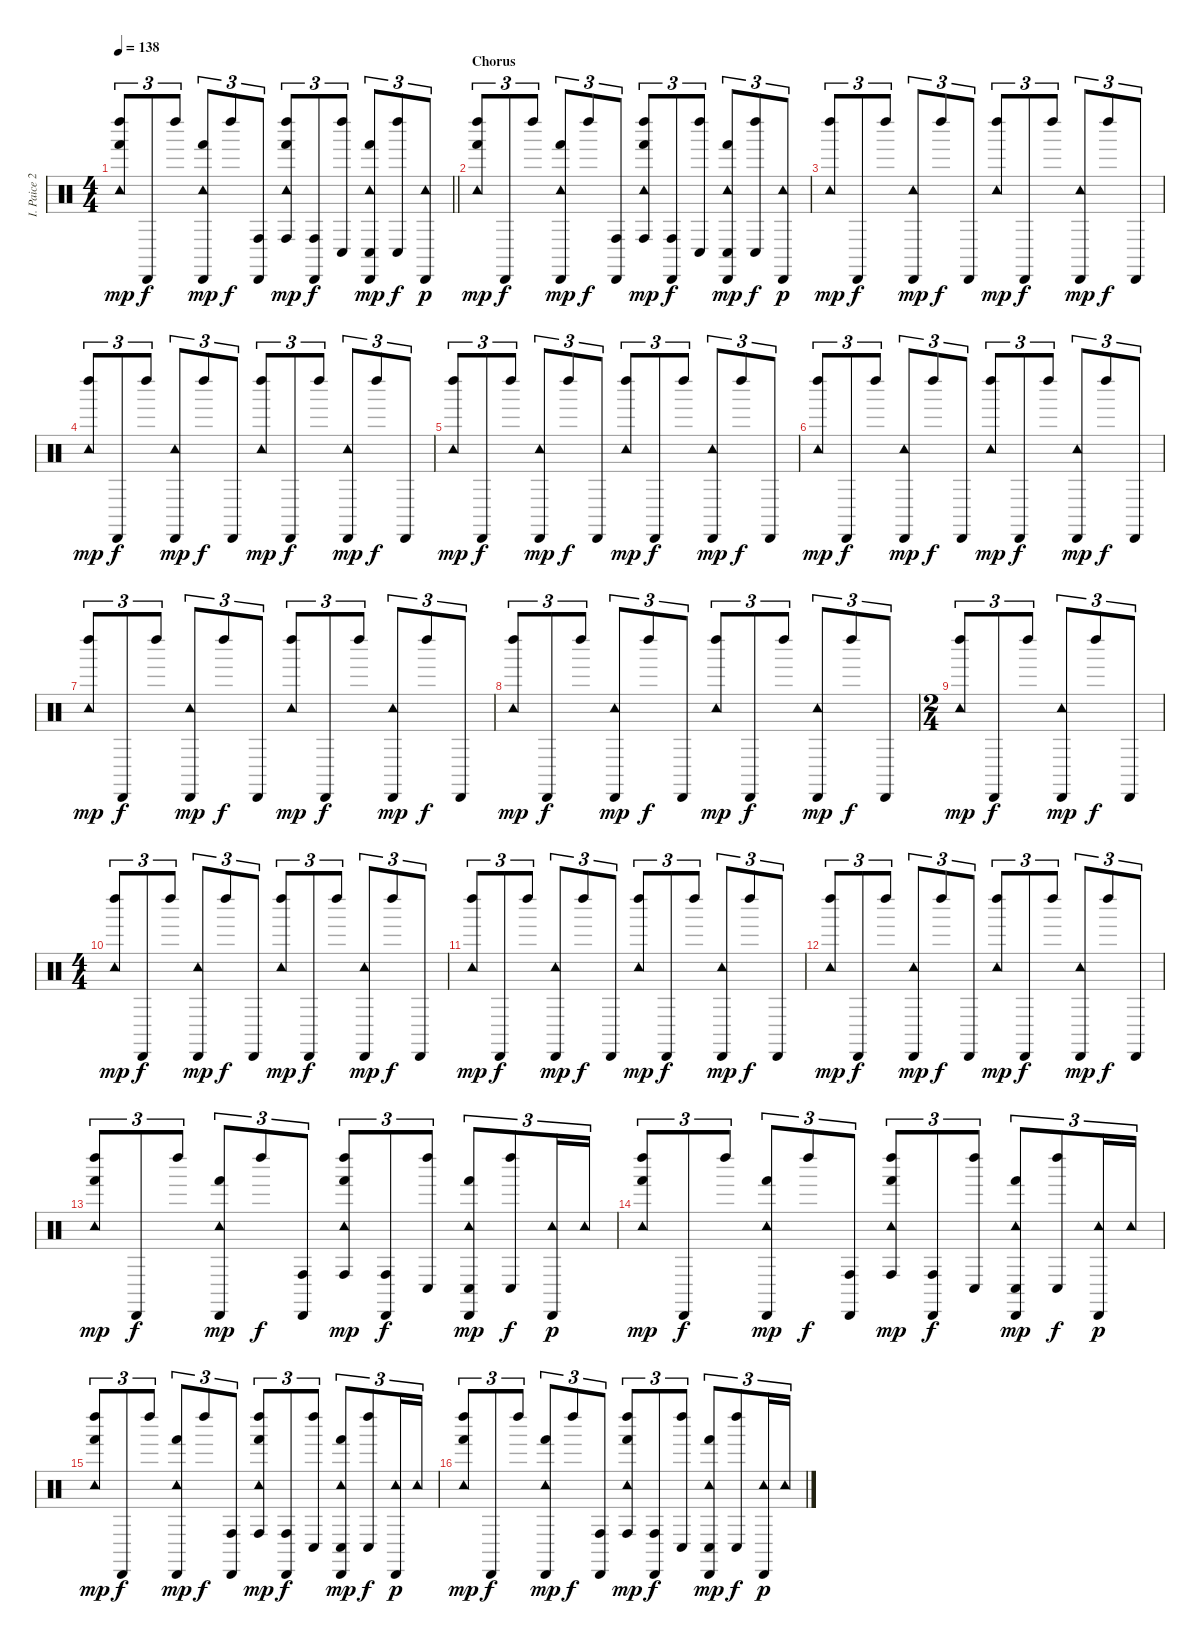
\track ("I. Paice 2" "I. Paice 2") {instrument percussion}
\staff {score}
\articulation defaults
\ts (4 4)
\tempo 138
\clef neutral
\barLineRight lightlight
\ks c
("Tambourine (hit)" "Left Maraca (hit)" "Hand (hit)").8{tu (3 2) dy mp} "Cabasa (hit)".8{tu (3 2) dy f} "Left Maraca (hit)".8{tu (3 2)} ("Tambourine (hit)" "Cabasa (hit)" "Hand (hit)").8{tu (3 2) dy mp} "Left Maraca (hit)".8{tu (3 2) dy f} ("Cabasa (hit)" "Conga high (hit)").8{tu (3 2)} ("Tambourine (hit)" "Left Maraca (hit)" "Hand (hit)" "Conga high (hit)").8{tu (3 2) dy mp} ("Cabasa (hit)" "Conga high (hit)").8{tu (3 2) dy f} ("Left Maraca (hit)" "Conga low (hit)").8{tu (3 2)} ("Tambourine (hit)" "Cabasa (hit)" "Hand (hit)" "Conga low (hit)").8{tu (3 2) dy mp} ("Left Maraca (hit)" "Conga low (hit)").8{tu (3 2) dy f} ("Tambourine (hit)" "Cabasa (hit)").8{tu (3 2) dy p} |
\section ("" "Chorus")
("Tambourine (hit)" "Left Maraca (hit)" "Hand (hit)").8{tu (3 2) dy mp} "Cabasa (hit)".8{tu (3 2) dy f} "Left Maraca (hit)".8{tu (3 2)} ("Tambourine (hit)" "Cabasa (hit)" "Hand (hit)").8{tu (3 2) dy mp} "Left Maraca (hit)".8{tu (3 2) dy f} ("Cabasa (hit)" "Conga high (hit)").8{tu (3 2)} ("Tambourine (hit)" "Left Maraca (hit)" "Hand (hit)" "Conga high (hit)").8{tu (3 2) dy mp} ("Cabasa (hit)" "Conga high (hit)").8{tu (3 2) dy f} ("Left Maraca (hit)" "Conga low (hit)").8{tu (3 2)} ("Tambourine (hit)" "Cabasa (hit)" "Hand (hit)" "Conga low (hit)").8{tu (3 2) dy mp} ("Left Maraca (hit)" "Conga low (hit)").8{tu (3 2) dy f} ("Tambourine (hit)" "Cabasa (hit)").8{tu (3 2) dy p} |
("Tambourine (hit)" "Left Maraca (hit)").8{tu (3 2) dy mp} "Cabasa (hit)".8{tu (3 2) dy f} "Left Maraca (hit)".8{tu (3 2)} ("Tambourine (hit)" "Cabasa (hit)").8{tu (3 2) dy mp} "Left Maraca (hit)".8{tu (3 2) dy f} "Cabasa (hit)".8{tu (3 2)} ("Tambourine (hit)" "Left Maraca (hit)").8{tu (3 2) dy mp} "Cabasa (hit)".8{tu (3 2) dy f} "Left Maraca (hit)".8{tu (3 2)} ("Tambourine (hit)" "Cabasa (hit)").8{tu (3 2) dy mp} "Left Maraca (hit)".8{tu (3 2) dy f} "Cabasa (hit)".8{tu (3 2)} |
("Tambourine (hit)" "Left Maraca (hit)").8{tu (3 2) dy mp} "Cabasa (hit)".8{tu (3 2) dy f} "Left Maraca (hit)".8{tu (3 2)} ("Tambourine (hit)" "Cabasa (hit)").8{tu (3 2) dy mp} "Left Maraca (hit)".8{tu (3 2) dy f} "Cabasa (hit)".8{tu (3 2)} ("Tambourine (hit)" "Left Maraca (hit)").8{tu (3 2) dy mp} "Cabasa (hit)".8{tu (3 2) dy f} "Left Maraca (hit)".8{tu (3 2)} ("Tambourine (hit)" "Cabasa (hit)").8{tu (3 2) dy mp} "Left Maraca (hit)".8{tu (3 2) dy f} "Cabasa (hit)".8{tu (3 2)} |
("Tambourine (hit)" "Left Maraca (hit)").8{tu (3 2) dy mp} "Cabasa (hit)".8{tu (3 2) dy f} "Left Maraca (hit)".8{tu (3 2)} ("Tambourine (hit)" "Cabasa (hit)").8{tu (3 2) dy mp} "Left Maraca (hit)".8{tu (3 2) dy f} "Cabasa (hit)".8{tu (3 2)} ("Tambourine (hit)" "Left Maraca (hit)").8{tu (3 2) dy mp} "Cabasa (hit)".8{tu (3 2) dy f} "Left Maraca (hit)".8{tu (3 2)} ("Tambourine (hit)" "Cabasa (hit)").8{tu (3 2) dy mp} "Left Maraca (hit)".8{tu (3 2) dy f} "Cabasa (hit)".8{tu (3 2)} |
("Tambourine (hit)" "Left Maraca (hit)").8{tu (3 2) dy mp} "Cabasa (hit)".8{tu (3 2) dy f} "Left Maraca (hit)".8{tu (3 2)} ("Tambourine (hit)" "Cabasa (hit)").8{tu (3 2) dy mp} "Left Maraca (hit)".8{tu (3 2) dy f} "Cabasa (hit)".8{tu (3 2)} ("Tambourine (hit)" "Left Maraca (hit)").8{tu (3 2) dy mp} "Cabasa (hit)".8{tu (3 2) dy f} "Left Maraca (hit)".8{tu (3 2)} ("Tambourine (hit)" "Cabasa (hit)").8{tu (3 2) dy mp} "Left Maraca (hit)".8{tu (3 2) dy f} "Cabasa (hit)".8{tu (3 2)} |
("Tambourine (hit)" "Left Maraca (hit)").8{tu (3 2) dy mp} "Cabasa (hit)".8{tu (3 2) dy f} "Left Maraca (hit)".8{tu (3 2)} ("Tambourine (hit)" "Cabasa (hit)").8{tu (3 2) dy mp} "Left Maraca (hit)".8{tu (3 2) dy f} "Cabasa (hit)".8{tu (3 2)} ("Tambourine (hit)" "Left Maraca (hit)").8{tu (3 2) dy mp} "Cabasa (hit)".8{tu (3 2) dy f} "Left Maraca (hit)".8{tu (3 2)} ("Tambourine (hit)" "Cabasa (hit)").8{tu (3 2) dy mp} "Left Maraca (hit)".8{tu (3 2) dy f} "Cabasa (hit)".8{tu (3 2)} |
("Tambourine (hit)" "Left Maraca (hit)").8{tu (3 2) dy mp} "Cabasa (hit)".8{tu (3 2) dy f} "Left Maraca (hit)".8{tu (3 2)} ("Tambourine (hit)" "Cabasa (hit)").8{tu (3 2) dy mp} "Left Maraca (hit)".8{tu (3 2) dy f} "Cabasa (hit)".8{tu (3 2)} ("Tambourine (hit)" "Left Maraca (hit)").8{tu (3 2) dy mp} "Cabasa (hit)".8{tu (3 2) dy f} "Left Maraca (hit)".8{tu (3 2)} ("Tambourine (hit)" "Cabasa (hit)").8{tu (3 2) dy mp} "Left Maraca (hit)".8{tu (3 2) dy f} "Cabasa (hit)".8{tu (3 2)} |
\ts (2 4)
("Tambourine (hit)" "Left Maraca (hit)").8{tu (3 2) dy mp} "Cabasa (hit)".8{tu (3 2) dy f} "Left Maraca (hit)".8{tu (3 2)} ("Tambourine (hit)" "Cabasa (hit)").8{tu (3 2) dy mp} "Left Maraca (hit)".8{tu (3 2) dy f} "Cabasa (hit)".8{tu (3 2)} |
\ts (4 4)
("Tambourine (hit)" "Left Maraca (hit)").8{tu (3 2) dy mp} "Cabasa (hit)".8{tu (3 2) dy f} "Left Maraca (hit)".8{tu (3 2)} ("Tambourine (hit)" "Cabasa (hit)").8{tu (3 2) dy mp} "Left Maraca (hit)".8{tu (3 2) dy f} "Cabasa (hit)".8{tu (3 2)} ("Tambourine (hit)" "Left Maraca (hit)").8{tu (3 2) dy mp} "Cabasa (hit)".8{tu (3 2) dy f} "Left Maraca (hit)".8{tu (3 2)} ("Tambourine (hit)" "Cabasa (hit)").8{tu (3 2) dy mp} "Left Maraca (hit)".8{tu (3 2) dy f} "Cabasa (hit)".8{tu (3 2)} |
("Tambourine (hit)" "Left Maraca (hit)").8{tu (3 2) dy mp} "Cabasa (hit)".8{tu (3 2) dy f} "Left Maraca (hit)".8{tu (3 2)} ("Tambourine (hit)" "Cabasa (hit)").8{tu (3 2) dy mp} "Left Maraca (hit)".8{tu (3 2) dy f} "Cabasa (hit)".8{tu (3 2)} ("Tambourine (hit)" "Left Maraca (hit)").8{tu (3 2) dy mp} "Cabasa (hit)".8{tu (3 2) dy f} "Left Maraca (hit)".8{tu (3 2)} ("Tambourine (hit)" "Cabasa (hit)").8{tu (3 2) dy mp} "Left Maraca (hit)".8{tu (3 2) dy f} "Cabasa (hit)".8{tu (3 2)} |
("Tambourine (hit)" "Left Maraca (hit)").8{tu (3 2) dy mp} "Cabasa (hit)".8{tu (3 2) dy f} "Left Maraca (hit)".8{tu (3 2)} ("Tambourine (hit)" "Cabasa (hit)").8{tu (3 2) dy mp} "Left Maraca (hit)".8{tu (3 2) dy f} "Cabasa (hit)".8{tu (3 2)} ("Tambourine (hit)" "Left Maraca (hit)").8{tu (3 2) dy mp} "Cabasa (hit)".8{tu (3 2) dy f} "Left Maraca (hit)".8{tu (3 2)} ("Tambourine (hit)" "Cabasa (hit)").8{tu (3 2) dy mp} "Left Maraca (hit)".8{tu (3 2) dy f} "Cabasa (hit)".8{tu (3 2)} |
("Tambourine (hit)" "Left Maraca (hit)" "Hand (hit)").8{tu (3 2) dy mp} "Cabasa (hit)".8{tu (3 2) dy f} "Left Maraca (hit)".8{tu (3 2)} ("Tambourine (hit)" "Cabasa (hit)" "Hand (hit)").8{tu (3 2) dy mp} "Left Maraca (hit)".8{tu (3 2) dy f} ("Cabasa (hit)" "Conga high (hit)").8{tu (3 2)} ("Tambourine (hit)" "Left Maraca (hit)" "Hand (hit)" "Conga high (hit)").8{tu (3 2) dy mp} ("Cabasa (hit)" "Conga high (hit)").8{tu (3 2) dy f} ("Left Maraca (hit)" "Conga low (hit)").8{tu (3 2)} ("Tambourine (hit)" "Cabasa (hit)" "Hand (hit)" "Conga low (hit)").8{tu (3 2) dy mp} ("Left Maraca (hit)" "Conga low (hit)").8{tu (3 2) dy f} ("Tambourine (hit)" "Cabasa (hit)").16{tu (3 2) dy p} "Tambourine (hit)".16{tu (3 2)} |
("Tambourine (hit)" "Left Maraca (hit)" "Hand (hit)").8{tu (3 2) dy mp} "Cabasa (hit)".8{tu (3 2) dy f} "Left Maraca (hit)".8{tu (3 2)} ("Tambourine (hit)" "Cabasa (hit)" "Hand (hit)").8{tu (3 2) dy mp} "Left Maraca (hit)".8{tu (3 2) dy f} ("Cabasa (hit)" "Conga high (hit)").8{tu (3 2)} ("Tambourine (hit)" "Left Maraca (hit)" "Hand (hit)" "Conga high (hit)").8{tu (3 2) dy mp} ("Cabasa (hit)" "Conga high (hit)").8{tu (3 2) dy f} ("Left Maraca (hit)" "Conga low (hit)").8{tu (3 2)} ("Tambourine (hit)" "Cabasa (hit)" "Hand (hit)" "Conga low (hit)").8{tu (3 2) dy mp} ("Left Maraca (hit)" "Conga low (hit)").8{tu (3 2) dy f} ("Tambourine (hit)" "Cabasa (hit)").16{tu (3 2) dy p} "Tambourine (hit)".16{tu (3 2)} |
("Tambourine (hit)" "Left Maraca (hit)" "Hand (hit)").8{tu (3 2) dy mp} "Cabasa (hit)".8{tu (3 2) dy f} "Left Maraca (hit)".8{tu (3 2)} ("Tambourine (hit)" "Cabasa (hit)" "Hand (hit)").8{tu (3 2) dy mp} "Left Maraca (hit)".8{tu (3 2) dy f} ("Cabasa (hit)" "Conga high (hit)").8{tu (3 2)} ("Tambourine (hit)" "Left Maraca (hit)" "Hand (hit)" "Conga high (hit)").8{tu (3 2) dy mp} ("Cabasa (hit)" "Conga high (hit)").8{tu (3 2) dy f} ("Left Maraca (hit)" "Conga low (hit)").8{tu (3 2)} ("Tambourine (hit)" "Cabasa (hit)" "Hand (hit)" "Conga low (hit)").8{tu (3 2) dy mp} ("Left Maraca (hit)" "Conga low (hit)").8{tu (3 2) dy f} ("Tambourine (hit)" "Cabasa (hit)").16{tu (3 2) dy p} "Tambourine (hit)".16{tu (3 2)} |
("Tambourine (hit)" "Left Maraca (hit)" "Hand (hit)").8{tu (3 2) dy mp} "Cabasa (hit)".8{tu (3 2) dy f} "Left Maraca (hit)".8{tu (3 2)} ("Tambourine (hit)" "Cabasa (hit)" "Hand (hit)").8{tu (3 2) dy mp} "Left Maraca (hit)".8{tu (3 2) dy f} ("Cabasa (hit)" "Conga high (hit)").8{tu (3 2)} ("Tambourine (hit)" "Left Maraca (hit)" "Hand (hit)" "Conga high (hit)").8{tu (3 2) dy mp} ("Cabasa (hit)" "Conga high (hit)").8{tu (3 2) dy f} ("Left Maraca (hit)" "Conga low (hit)").8{tu (3 2)} ("Tambourine (hit)" "Cabasa (hit)" "Hand (hit)" "Conga low (hit)").8{tu (3 2) dy mp} ("Left Maraca (hit)" "Conga low (hit)").8{tu (3 2) dy f} ("Tambourine (hit)" "Cabasa (hit)").16{tu (3 2) dy p} "Tambourine (hit)".16{tu (3 2)}
